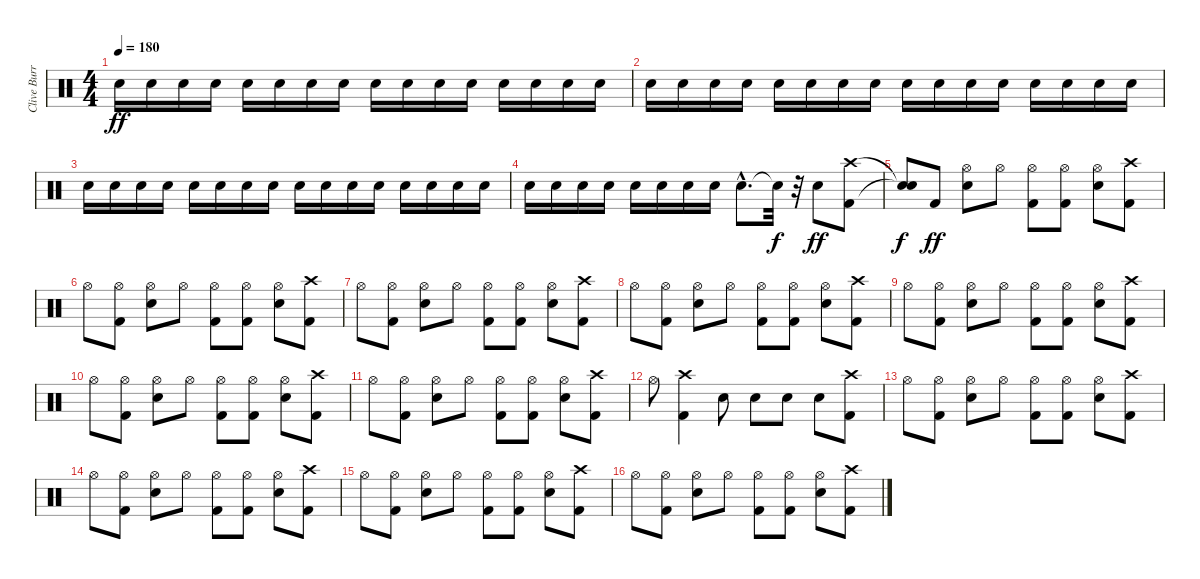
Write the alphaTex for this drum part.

\track ("Clive Burr" "Clive Burr") {instrument percussion}
\staff {score}
\articulation defaults
\ts (4 4)
\tempo 210
\tempo 180
\clef neutral
\ks c "Snare (hit) 2".16{dy ff volume 16} "Snare (hit) 2".16{volume 8} "Snare (hit) 2".16 "Snare (hit) 2".16 "Snare (hit) 2".16 "Snare (hit) 2".16 "Snare (hit) 2".16{volume 16} "Snare (hit) 2".16{volume 8} "Snare (hit) 2".16 "Snare (hit) 2".16 "Snare (hit) 2".16 "Snare (hit) 2".16 "Snare (hit) 2".16{volume 16} "Snare (hit) 2".16{volume 8} "Snare (hit) 2".16{volume 16} "Snare (hit) 2".16{volume 8}
|
"Snare (hit) 2".16{volume 16} "Snare (hit) 2".16{volume 8} "Snare (hit) 2".16 "Snare (hit) 2".16 "Snare (hit) 2".16 "Snare (hit) 2".16 "Snare (hit) 2".16{volume 16} "Snare (hit) 2".16{volume 8} "Snare (hit) 2".16 "Snare (hit) 2".16 "Snare (hit) 2".16 "Snare (hit) 2".16 "Snare (hit) 2".16{volume 16} "Snare (hit) 2".16{volume 8} "Snare (hit) 2".16{volume 16} "Snare (hit) 2".16{volume 8} |
"Snare (hit) 2".16{volume 16} "Snare (hit) 2".16{volume 8} "Snare (hit) 2".16 "Snare (hit) 2".16 "Snare (hit) 2".16 "Snare (hit) 2".16 "Snare (hit) 2".16{volume 16} "Snare (hit) 2".16{volume 8} "Snare (hit) 2".16 "Snare (hit) 2".16 "Snare (hit) 2".16 "Snare (hit) 2".16 "Snare (hit) 2".16{volume 16} "Snare (hit) 2".16{volume 8} "Snare (hit) 2".16{volume 16} "Snare (hit) 2".16{volume 8} |
"Snare (hit) 2".16{volume 16} "Snare (hit) 2".16{volume 8} "Snare (hit) 2".16 "Snare (hit) 2".16 "Snare (hit) 2".16{volume 16} "Snare (hit) 2".16{volume 8} "Snare (hit) 2".16 "Snare (hit) 2".16 "Snare (hit) 2"{hac}.8{d volume 16} "Snare (hit)"{t}.32{dy f} r.32 "Snare (hit) 2".8{dy ff volume 16} ("Kick (hit) 2" "Crash high (hit)").8 |
("Snare (hit)"{t} "Snare (hit)"{t}).8{dy f} "Kick (hit) 2".8{dy ff} ("Snare (hit) 2" "Hi-Hat (open)").8 "Hi-Hat (open)".8 ("Kick (hit) 2" "Hi-Hat (open)").8 ("Kick (hit) 2" "Hi-Hat (open)").8 ("Snare (hit) 2" "Hi-Hat (open)").8 ("Kick (hit) 2" "Crash high (hit)").8 |
"Hi-Hat (open)".8 ("Kick (hit) 2" "Hi-Hat (open)").8 ("Snare (hit) 2" "Hi-Hat (open)").8 "Hi-Hat (open)".8 ("Kick (hit) 2" "Hi-Hat (open)").8 ("Kick (hit) 2" "Hi-Hat (open)").8 ("Snare (hit) 2" "Hi-Hat (open)").8 ("Kick (hit) 2" "Crash high (hit)").8 |
"Hi-Hat (open)".8 ("Kick (hit) 2" "Hi-Hat (open)").8 ("Snare (hit) 2" "Hi-Hat (open)").8 "Hi-Hat (open)".8 ("Kick (hit) 2" "Hi-Hat (open)").8 ("Kick (hit) 2" "Hi-Hat (open)").8 ("Snare (hit) 2" "Hi-Hat (open)").8 ("Kick (hit) 2" "Crash high (hit)").8 |
"Hi-Hat (open)".8 ("Kick (hit) 2" "Hi-Hat (open)").8 ("Snare (hit) 2" "Hi-Hat (open)").8 "Hi-Hat (open)".8 ("Kick (hit) 2" "Hi-Hat (open)").8 ("Kick (hit) 2" "Hi-Hat (open)").8 ("Snare (hit) 2" "Hi-Hat (open)").8 ("Kick (hit) 2" "Crash high (hit)").8 |
"Hi-Hat (open)".8 ("Kick (hit) 2" "Hi-Hat (open)").8 ("Snare (hit) 2" "Hi-Hat (open)").8 "Hi-Hat (open)".8 ("Kick (hit) 2" "Hi-Hat (open)").8 ("Kick (hit) 2" "Hi-Hat (open)").8 ("Snare (hit) 2" "Hi-Hat (open)").8 ("Kick (hit) 2" "Crash high (hit)").8 |
"Hi-Hat (open)".8 ("Kick (hit) 2" "Hi-Hat (open)").8 ("Snare (hit) 2" "Hi-Hat (open)").8 "Hi-Hat (open)".8 ("Kick (hit) 2" "Hi-Hat (open)").8 ("Kick (hit) 2" "Hi-Hat (open)").8 ("Snare (hit) 2" "Hi-Hat (open)").8 ("Kick (hit) 2" "Crash high (hit)").8 |
"Hi-Hat (open)".8 ("Kick (hit) 2" "Hi-Hat (open)").8 ("Snare (hit) 2" "Hi-Hat (open)").8 "Hi-Hat (open)".8 ("Kick (hit) 2" "Hi-Hat (open)").8 ("Kick (hit) 2" "Hi-Hat (open)").8 ("Snare (hit) 2" "Hi-Hat (open)").8 ("Kick (hit) 2" "Crash high (hit)").8 |
"Hi-Hat (open)".8 ("Kick (hit) 2" "Crash high (hit)").4 "Snare (hit) 2".8 "Snare (hit) 2".8 "Snare (hit) 2".8 "Snare (hit) 2".8 ("Kick (hit) 2" "Crash high (hit)").8 |
"Hi-Hat (open)".8 ("Kick (hit) 2" "Hi-Hat (open)").8 ("Snare (hit) 2" "Hi-Hat (open)").8 "Hi-Hat (open)".8 ("Kick (hit) 2" "Hi-Hat (open)").8 ("Kick (hit) 2" "Hi-Hat (open)").8 ("Snare (hit) 2" "Hi-Hat (open)").8 ("Kick (hit) 2" "Crash high (hit)").8 |
"Hi-Hat (open)".8 ("Kick (hit) 2" "Hi-Hat (open)").8 ("Snare (hit) 2" "Hi-Hat (open)").8 "Hi-Hat (open)".8 ("Kick (hit) 2" "Hi-Hat (open)").8 ("Kick (hit) 2" "Hi-Hat (open)").8 ("Snare (hit) 2" "Hi-Hat (open)").8 ("Kick (hit) 2" "Crash high (hit)").8 |
"Hi-Hat (open)".8 ("Kick (hit) 2" "Hi-Hat (open)").8 ("Snare (hit) 2" "Hi-Hat (open)").8 "Hi-Hat (open)".8 ("Kick (hit) 2" "Hi-Hat (open)").8 ("Kick (hit) 2" "Hi-Hat (open)").8 ("Snare (hit) 2" "Hi-Hat (open)").8 ("Kick (hit) 2" "Crash high (hit)").8 |
"Hi-Hat (open)".8 ("Kick (hit) 2" "Hi-Hat (open)").8 ("Snare (hit) 2" "Hi-Hat (open)").8 "Hi-Hat (open)".8 ("Kick (hit) 2" "Hi-Hat (open)").8 ("Kick (hit) 2" "Hi-Hat (open)").8 ("Snare (hit) 2" "Hi-Hat (open)").8 ("Kick (hit) 2" "Crash high (hit)").8
